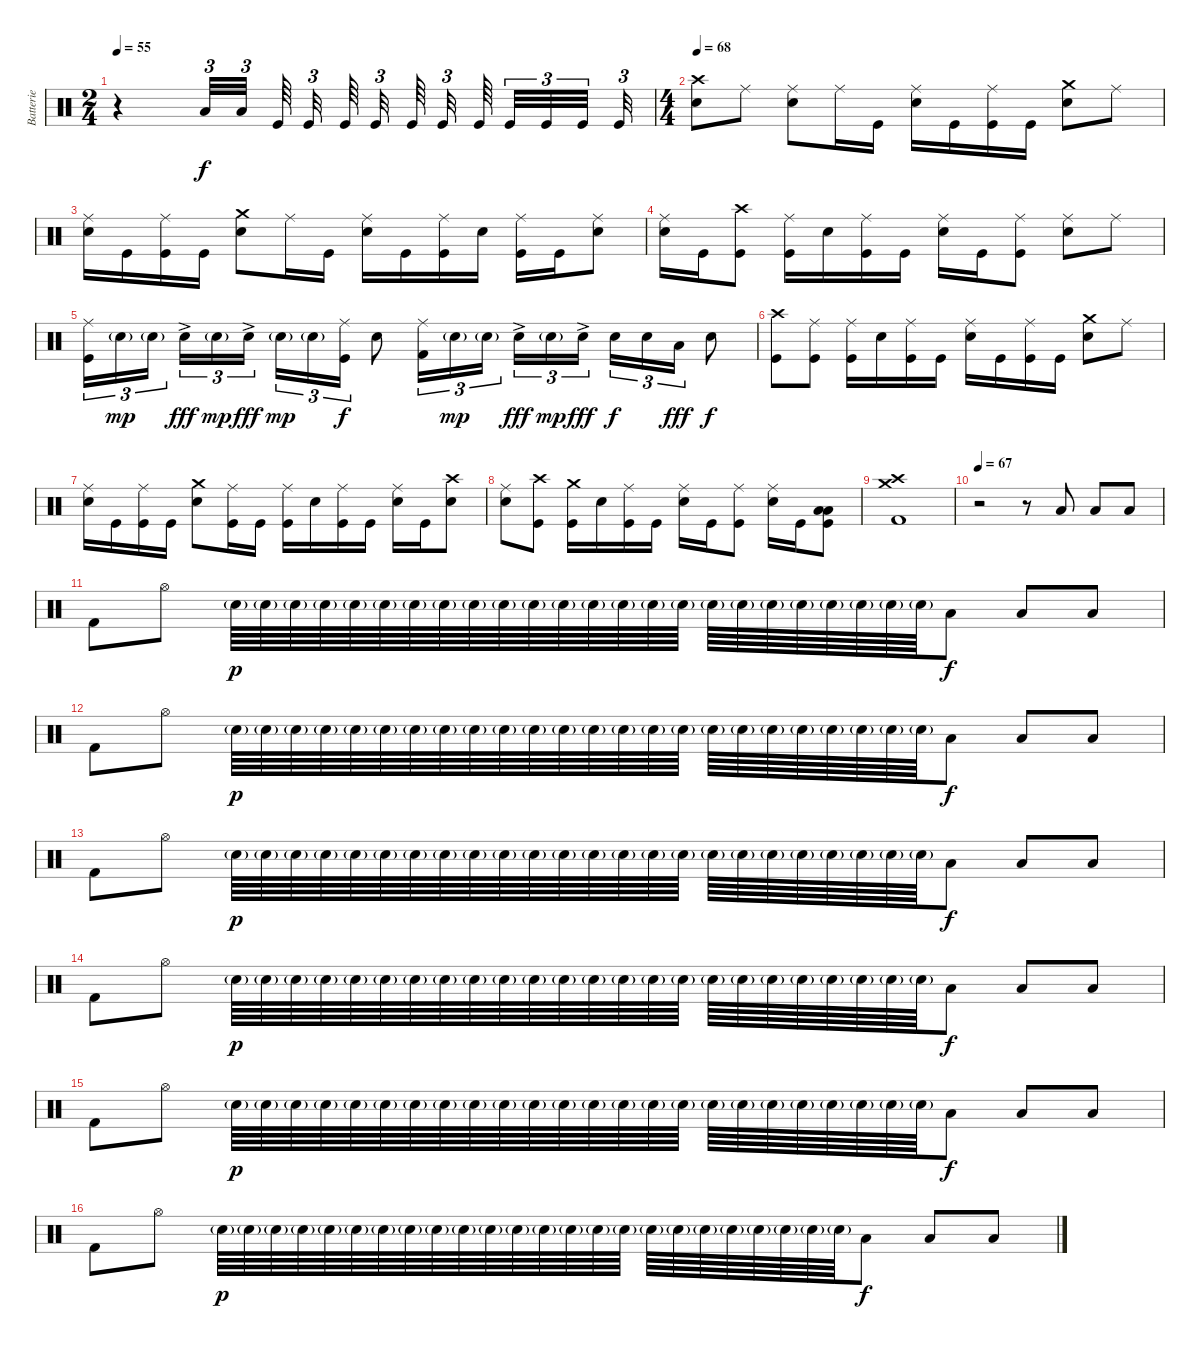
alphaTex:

\track ("Batterie" "Batterie") {instrument percussion}
\staff {score}
\articulation defaults
\ts (2 4)
\tempo 55
\clef neutral
\ks c
r.4{dy f} "Low Floor Tom (hit)".32{tu (3 2)} "Low Floor Tom (hit)".32{tu (3 2)} "Kick (hit)".64 "Kick (hit)".32{tu (3 2)} "Kick (hit)".64 "Kick (hit)".32{tu (3 2)} "Kick (hit)".64 "Kick (hit)".32{tu (3 2)} "Kick (hit)".64 "Kick (hit)".32{tu (3 2)} "Kick (hit)".32{tu (3 2)} "Kick (hit)".32{tu (3 2)} "Kick (hit)".32{tu (3 2)} |
\ts (4 4)
\tempo 68
("Crash high (hit)" "Electric Snare (hit)").8 "Ride (middle)".8 ("Ride (middle)" "Electric Snare (hit)").8 "Ride (middle)".16 "Kick (hit)".16 ("Ride (middle)" "Electric Snare (hit)").16 "Kick (hit)".16 ("Ride (middle)" "Kick (hit)").16 "Kick (hit)".16 ("Crash medium (hit)" "Electric Snare (hit)").8 "Ride (middle)".8 |
("Ride (middle)" "Electric Snare (hit)").16 "Kick (hit)".16 ("Ride (middle)" "Kick (hit)").16 "Kick (hit)".16 ("Crash medium (hit)" "Electric Snare (hit)").8 "Ride (middle)".16 "Kick (hit)".16 ("Ride (middle)" "Electric Snare (hit)").16 "Kick (hit)".16 ("Ride (middle)" "Kick (hit)").16 "Electric Snare (hit)".16 ("Ride (middle)" "Kick (hit)").16 "Kick (hit)".16 ("Ride (middle)" "Electric Snare (hit)").8 |
("Ride (middle)" "Electric Snare (hit)").16 "Kick (hit)".16 ("Crash high (hit)" "Kick (hit)").8 ("Ride (middle)" "Kick (hit)").16 "Electric Snare (hit)".16 ("Ride (middle)" "Kick (hit)").16 "Kick (hit)".16 ("Ride (middle)" "Electric Snare (hit)").16 "Kick (hit)".16 ("Ride (middle)" "Kick (hit)").8 ("Ride (middle)" "Electric Snare (hit)").8 "Ride (middle)".8 |
("Ride (middle)" "Kick (hit)").16{tu (3 2)} "Electric Snare (hit)"{g}.16{tu (3 2) dy mp} "Electric Snare (hit)"{g}.16{tu (3 2)} "Electric Snare (hit)"{ac}.16{tu (3 2) dy fff} "Electric Snare (hit)"{g}.16{tu (3 2) dy mp} "Electric Snare (hit)"{ac}.16{tu (3 2) dy fff} "Electric Snare (hit)"{g}.16{tu (3 2) dy mp} "Electric Snare (hit)"{g}.16{tu (3 2)} ("Ride (middle)" "Kick (hit)").16{tu (3 2) dy f} "Electric Snare (hit)".8 ("Ride (middle)" "Kick (hit) 2").16{tu (3 2)} "Electric Snare (hit)"{g}.16{tu (3 2) dy mp} "Electric Snare (hit)"{g}.16{tu (3 2)} "Electric Snare (hit)"{ac}.16{tu (3 2) dy fff} "Electric Snare (hit)"{g}.16{tu (3 2) dy mp} "Electric Snare (hit)"{ac}.16{tu (3 2) dy fff} "Electric Snare (hit)".16{tu (3 2) dy f} "Electric Snare (hit)".16{tu (3 2)} "Low Floor Tom (hit)".16{tu (3 2) dy fff} "Electric Snare (hit)".8{dy f} |
("Crash high (hit)" "Kick (hit)").8 ("Ride (middle)" "Kick (hit)").8 ("Ride (middle)" "Kick (hit)").16 "Electric Snare (hit)".16 ("Ride (middle)" "Kick (hit)").16 "Kick (hit)".16 ("Ride (middle)" "Electric Snare (hit)").16 "Kick (hit)".16 ("Ride (middle)" "Kick (hit)").16 "Kick (hit)".16 ("Crash medium (hit)" "Electric Snare (hit)").8 "Ride (middle)".8 |
("Ride (middle)" "Electric Snare (hit)").16 "Kick (hit)".16 ("Ride (middle)" "Kick (hit)").16 "Kick (hit)".16 ("Crash medium (hit)" "Electric Snare (hit)").8 ("Ride (middle)" "Kick (hit)").16 "Kick (hit)".16 ("Ride (middle)" "Kick (hit)").16 "Electric Snare (hit)".16 ("Ride (middle)" "Kick (hit)").16 "Kick (hit)".16 ("Ride (middle)" "Electric Snare (hit)").16 "Kick (hit)".16 ("Crash high (hit)" "Electric Snare (hit)").8 |
("Ride (middle)" "Electric Snare (hit)").8 ("Crash high (hit)" "Kick (hit)").8 ("Crash medium (hit)" "Kick (hit)").16 "Electric Snare (hit)".16 ("Ride (middle)" "Kick (hit)").16 "Kick (hit)".16 ("Ride (middle)" "Electric Snare (hit)").16 "Kick (hit)".16 ("Ride (middle)" "Kick (hit)").8 ("Ride (middle)" "Electric Snare (hit)").16 "Kick (hit)".16 ("Low Tom (hit)" "Low Floor Tom (hit)" "Kick (hit)").8 |
("Crash high (hit)" "Crash medium (hit)" "Kick (hit) 2").1 |
\tempo 67
r.2{volume 11} r.8 "Low Tom (hit)".8 "Low Floor Tom (hit)".8 "Low Tom (hit)".8 |
"Kick (hit) 2".8 "Hi-Hat (open)".8 "Electric Snare (hit)"{g}.64{dy p} "Electric Snare (hit)"{g}.64 "Electric Snare (hit)"{g}.64 "Electric Snare (hit)"{g}.64 "Electric Snare (hit)"{g}.64 "Electric Snare (hit)"{g}.64 "Electric Snare (hit)"{g}.64 "Electric Snare (hit)"{g}.64 "Electric Snare (hit)"{g}.64 "Electric Snare (hit)"{g}.64 "Electric Snare (hit)"{g}.64 "Electric Snare (hit)"{g}.64 "Electric Snare (hit)"{g}.64 "Electric Snare (hit)"{g}.64 "Electric Snare (hit)"{g}.64 "Electric Snare (hit)"{g}.64 "Electric Snare (hit)"{g}.64 "Electric Snare (hit)"{g}.64 "Electric Snare (hit)"{g}.64 "Electric Snare (hit)"{g}.64 "Electric Snare (hit)"{g}.64 "Electric Snare (hit)"{g}.64 "Electric Snare (hit)"{g}.64 "Electric Snare (hit)"{g}.64 "Low Tom (hit)".8{dy f} "Low Floor Tom (hit)".8 "Low Tom (hit)".8 |
"Kick (hit) 2".8 "Hi-Hat (open)".8 "Electric Snare (hit)"{g}.64{dy p} "Electric Snare (hit)"{g}.64 "Electric Snare (hit)"{g}.64 "Electric Snare (hit)"{g}.64 "Electric Snare (hit)"{g}.64 "Electric Snare (hit)"{g}.64 "Electric Snare (hit)"{g}.64 "Electric Snare (hit)"{g}.64 "Electric Snare (hit)"{g}.64 "Electric Snare (hit)"{g}.64 "Electric Snare (hit)"{g}.64 "Electric Snare (hit)"{g}.64 "Electric Snare (hit)"{g}.64 "Electric Snare (hit)"{g}.64 "Electric Snare (hit)"{g}.64 "Electric Snare (hit)"{g}.64 "Electric Snare (hit)"{g}.64 "Electric Snare (hit)"{g}.64 "Electric Snare (hit)"{g}.64 "Electric Snare (hit)"{g}.64 "Electric Snare (hit)"{g}.64 "Electric Snare (hit)"{g}.64 "Electric Snare (hit)"{g}.64 "Electric Snare (hit)"{g}.64 "Low Tom (hit)".8{dy f} "Low Floor Tom (hit)".8 "Low Tom (hit)".8 |
"Kick (hit) 2".8 "Hi-Hat (open)".8 "Electric Snare (hit)"{g}.64{dy p} "Electric Snare (hit)"{g}.64 "Electric Snare (hit)"{g}.64 "Electric Snare (hit)"{g}.64 "Electric Snare (hit)"{g}.64 "Electric Snare (hit)"{g}.64 "Electric Snare (hit)"{g}.64 "Electric Snare (hit)"{g}.64 "Electric Snare (hit)"{g}.64 "Electric Snare (hit)"{g}.64 "Electric Snare (hit)"{g}.64 "Electric Snare (hit)"{g}.64 "Electric Snare (hit)"{g}.64 "Electric Snare (hit)"{g}.64 "Electric Snare (hit)"{g}.64 "Electric Snare (hit)"{g}.64 "Electric Snare (hit)"{g}.64 "Electric Snare (hit)"{g}.64 "Electric Snare (hit)"{g}.64 "Electric Snare (hit)"{g}.64 "Electric Snare (hit)"{g}.64 "Electric Snare (hit)"{g}.64 "Electric Snare (hit)"{g}.64 "Electric Snare (hit)"{g}.64 "Low Tom (hit)".8{dy f} "Low Floor Tom (hit)".8 "Low Tom (hit)".8 |
"Kick (hit) 2".8 "Hi-Hat (open)".8 "Electric Snare (hit)"{g}.64{dy p} "Electric Snare (hit)"{g}.64 "Electric Snare (hit)"{g}.64 "Electric Snare (hit)"{g}.64 "Electric Snare (hit)"{g}.64 "Electric Snare (hit)"{g}.64 "Electric Snare (hit)"{g}.64 "Electric Snare (hit)"{g}.64 "Electric Snare (hit)"{g}.64 "Electric Snare (hit)"{g}.64 "Electric Snare (hit)"{g}.64 "Electric Snare (hit)"{g}.64 "Electric Snare (hit)"{g}.64 "Electric Snare (hit)"{g}.64 "Electric Snare (hit)"{g}.64 "Electric Snare (hit)"{g}.64 "Electric Snare (hit)"{g}.64 "Electric Snare (hit)"{g}.64 "Electric Snare (hit)"{g}.64 "Electric Snare (hit)"{g}.64 "Electric Snare (hit)"{g}.64 "Electric Snare (hit)"{g}.64 "Electric Snare (hit)"{g}.64 "Electric Snare (hit)"{g}.64 "Low Tom (hit)".8{dy f} "Low Floor Tom (hit)".8 "Low Tom (hit)".8 |
"Kick (hit) 2".8 "Hi-Hat (open)".8 "Electric Snare (hit)"{g}.64{dy p} "Electric Snare (hit)"{g}.64 "Electric Snare (hit)"{g}.64 "Electric Snare (hit)"{g}.64 "Electric Snare (hit)"{g}.64 "Electric Snare (hit)"{g}.64 "Electric Snare (hit)"{g}.64 "Electric Snare (hit)"{g}.64 "Electric Snare (hit)"{g}.64 "Electric Snare (hit)"{g}.64 "Electric Snare (hit)"{g}.64 "Electric Snare (hit)"{g}.64 "Electric Snare (hit)"{g}.64 "Electric Snare (hit)"{g}.64 "Electric Snare (hit)"{g}.64 "Electric Snare (hit)"{g}.64 "Electric Snare (hit)"{g}.64 "Electric Snare (hit)"{g}.64 "Electric Snare (hit)"{g}.64 "Electric Snare (hit)"{g}.64 "Electric Snare (hit)"{g}.64 "Electric Snare (hit)"{g}.64 "Electric Snare (hit)"{g}.64 "Electric Snare (hit)"{g}.64 "Low Tom (hit)".8{dy f} "Low Floor Tom (hit)".8 "Low Tom (hit)".8 |
"Kick (hit) 2".8 "Hi-Hat (open)".8 "Electric Snare (hit)"{g}.64{dy p} "Electric Snare (hit)"{g}.64 "Electric Snare (hit)"{g}.64 "Electric Snare (hit)"{g}.64 "Electric Snare (hit)"{g}.64 "Electric Snare (hit)"{g}.64 "Electric Snare (hit)"{g}.64 "Electric Snare (hit)"{g}.64 "Electric Snare (hit)"{g}.64 "Electric Snare (hit)"{g}.64 "Electric Snare (hit)"{g}.64 "Electric Snare (hit)"{g}.64 "Electric Snare (hit)"{g}.64 "Electric Snare (hit)"{g}.64 "Electric Snare (hit)"{g}.64 "Electric Snare (hit)"{g}.64 "Electric Snare (hit)"{g}.64 "Electric Snare (hit)"{g}.64 "Electric Snare (hit)"{g}.64 "Electric Snare (hit)"{g}.64 "Electric Snare (hit)"{g}.64 "Electric Snare (hit)"{g}.64 "Electric Snare (hit)"{g}.64 "Electric Snare (hit)"{g}.64 "Low Tom (hit)".8{dy f} "Low Floor Tom (hit)".8 "Low Tom (hit)".8
